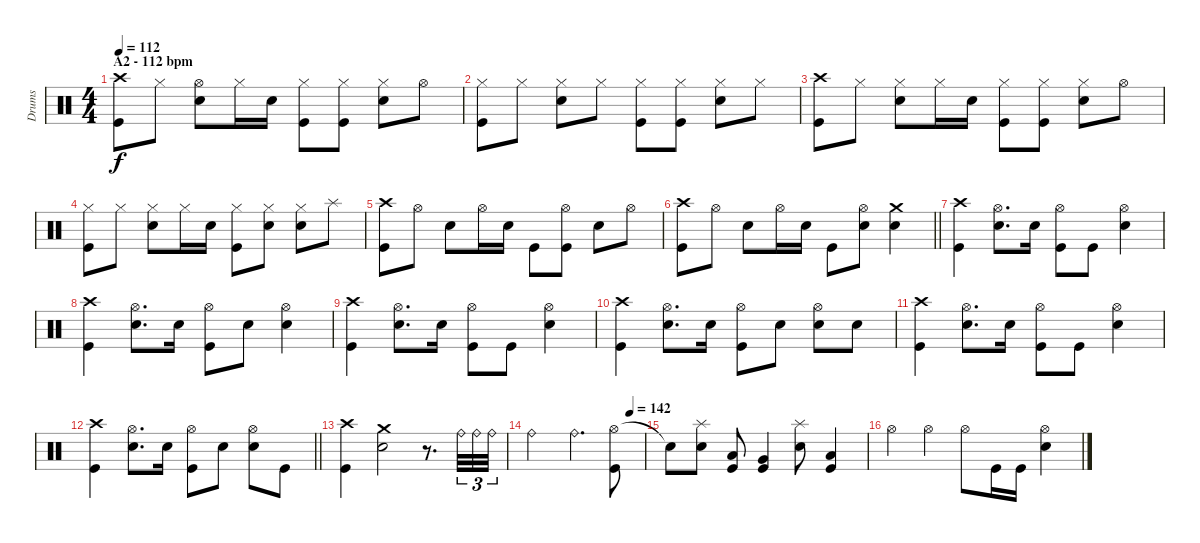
\track ("Drums" "Drums") {instrument percussion}
\staff
\articulation defaults
\ts (4 4)
\section ("" "A2 - 112 bpm")
\tempo 112
\clef neutral
\ks c
("Crash high (hit)" "Kick (hit)").8{dy f} "Hi-Hat (closed)".8 ("Hi-Hat (open)" "Electric Snare (hit)").8 "Hi-Hat (closed)".16 "Electric Snare (hit)".16 ("Hi-Hat (closed)" "Kick (hit)").8 ("Hi-Hat (closed)" "Kick (hit)").8 ("Hi-Hat (closed)" "Electric Snare (hit)").8 "Hi-Hat (open)".8 |
("Hi-Hat (closed)" "Kick (hit)").8 "Hi-Hat (closed)".8 ("Hi-Hat (closed)" "Electric Snare (hit)").8 "Hi-Hat (closed)".8 ("Hi-Hat (closed)" "Kick (hit)").8 ("Hi-Hat (closed)" "Kick (hit)").8 ("Hi-Hat (closed)" "Electric Snare (hit)").8 "Hi-Hat (closed)".8 |
("Crash high (hit)" "Kick (hit)").8 "Hi-Hat (closed)".8 ("Hi-Hat (closed)" "Electric Snare (hit)").8 "Hi-Hat (closed)".16 "Electric Snare (hit)".16 ("Hi-Hat (closed)" "Kick (hit)").8 ("Hi-Hat (closed)" "Kick (hit)").8 ("Hi-Hat (closed)" "Electric Snare (hit)").8 "Hi-Hat (open)".8 |
("Hi-Hat (closed)" "Kick (hit)").8 "Hi-Hat (closed)".8 ("Hi-Hat (closed)" "Electric Snare (hit)").8 "Hi-Hat (closed)".16 "Electric Snare (hit)".16 ("Hi-Hat (closed)" "Kick (hit)").8 ("Hi-Hat (closed)" "Electric Snare (hit)").8 ("Hi-Hat (closed)" "Electric Snare (hit)").8 "Splash (hit)".8 |
("Crash high (hit)" "Kick (hit)").8 "Hi-Hat (open)".8 "Electric Snare (hit)".8 "Hi-Hat (open)".16 "Electric Snare (hit)".16 "Kick (hit)".8 ("Hi-Hat (open)" "Kick (hit)").8 "Electric Snare (hit)".8 "Hi-Hat (open)".8 |
\barLineRight lightlight
("Crash high (hit)" "Kick (hit)").8 "Hi-Hat (open)".8 "Electric Snare (hit)".8 "Hi-Hat (open)".16 "Electric Snare (hit)".16 "Kick (hit)".8 ("Hi-Hat (open)" "Electric Snare (hit)").8 ("Crash medium (hit)" "Electric Snare (hit)").4 |
\section ("" "")
("Crash high (hit)" "Kick (hit)").4 ("Hi-Hat (open)" "Electric Snare (hit)").8{d} "Electric Snare (hit)".16 ("Hi-Hat (open)" "Kick (hit)").8 "Kick (hit)".8 ("Hi-Hat (open)" "Electric Snare (hit)").4 |
("Crash high (hit)" "Kick (hit)").4 ("Hi-Hat (open)" "Electric Snare (hit)").8{d} "Electric Snare (hit)".16 ("Hi-Hat (open)" "Kick (hit)").8 "Electric Snare (hit)".8 ("Hi-Hat (open)" "Electric Snare (hit)").4 |
("Crash high (hit)" "Kick (hit)").4 ("Hi-Hat (open)" "Electric Snare (hit)").8{d} "Electric Snare (hit)".16 ("Hi-Hat (open)" "Kick (hit)").8 "Kick (hit)".8 ("Hi-Hat (open)" "Electric Snare (hit)").4 |
("Crash high (hit)" "Kick (hit)").4 ("Hi-Hat (open)" "Electric Snare (hit)").8{d} "Electric Snare (hit)".16 ("Hi-Hat (open)" "Kick (hit)").8 "Electric Snare (hit)".8 ("Hi-Hat (open)" "Electric Snare (hit)").8 "Electric Snare (hit)".8 |
("Crash high (hit)" "Kick (hit)").4 ("Hi-Hat (open)" "Electric Snare (hit)").8{d} "Electric Snare (hit)".16 ("Hi-Hat (open)" "Kick (hit)").8 "Kick (hit)".8 ("Hi-Hat (open)" "Electric Snare (hit)").4 |
\barLineRight lightlight
("Crash high (hit)" "Kick (hit)").4 ("Hi-Hat (open)" "Electric Snare (hit)").8{d} "Electric Snare (hit)".16 ("Hi-Hat (open)" "Kick (hit)").8 "Electric Snare (hit)".8 ("Hi-Hat (open)" "Electric Snare (hit)").8 "Kick (hit)".8 |
("Crash high (hit)" "Kick (hit)").4 ("Crash medium (hit)" "Electric Snare (hit)").2 r.8{d} "Ride (bell)".32{tu (3 2)} "Ride (bell)".32{tu (3 2)} "Ride (bell)".32{tu (3 2)} |
\tempo (142 0.875)
"Ride (bell)".2 "Ride (bell)".4{d} ("Hi-Hat (open)" "Kick (hit)").8 |
"Snare (hit)"{t}.8 ("Splash (hit)" "Electric Snare (hit)").8 ("Low Tom (hit)" "Kick (hit)").8 ("Very Low Tom (hit)" "Kick (hit)").4 ("Splash (hit)" "Electric Snare (hit)").8 ("Low Floor Tom (hit)" "Kick (hit)").4 |
"Hi-Hat (open)".4 "Hi-Hat (open)".4 "Hi-Hat (open)".8 "Kick (hit)".16 "Kick (hit)".16 ("Hi-Hat (open)" "Electric Snare (hit)").4
